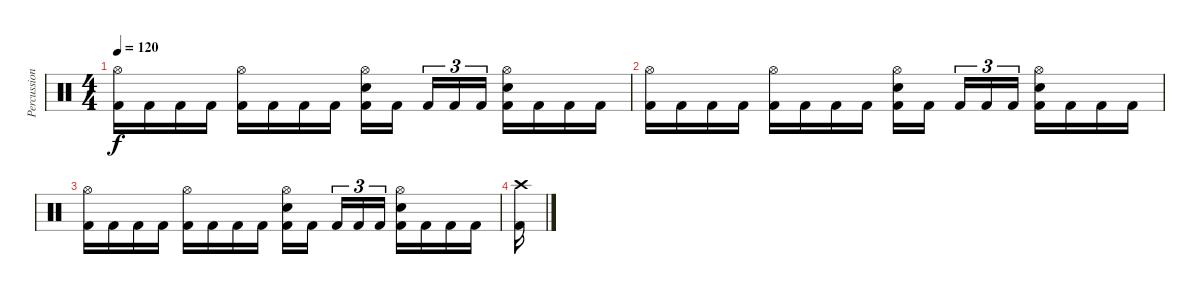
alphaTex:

\track ("Percussion" "Percussion") {instrument percussion}
\staff {score}
\articulation defaults
\ts (4 4)
\tempo 120
\clef neutral
\ks c
("Hi-Hat (open)" "Kick (hit) 2").16{dy f} "Kick (hit) 2".16 "Kick (hit) 2".16 "Kick (hit) 2".16 ("Hi-Hat (open)" "Kick (hit) 2").16 "Kick (hit) 2".16 "Kick (hit) 2".16 "Kick (hit) 2".16 ("Hi-Hat (open)" "Snare (hit) 2" "Kick (hit) 2").16 "Kick (hit) 2".16{beam splitsecondary} "Kick (hit) 2".16{tu (3 2)} "Kick (hit) 2".16{tu (3 2)} "Kick (hit) 2".16{tu (3 2)} ("Hi-Hat (open)" "Snare (hit) 2" "Kick (hit) 2").16 "Kick (hit) 2".16 "Kick (hit) 2".16 "Kick (hit) 2".16 |
("Hi-Hat (open)" "Kick (hit) 2").16 "Kick (hit) 2".16 "Kick (hit) 2".16 "Kick (hit) 2".16 ("Hi-Hat (open)" "Kick (hit) 2").16 "Kick (hit) 2".16 "Kick (hit) 2".16 "Kick (hit) 2".16 ("Hi-Hat (open)" "Snare (hit) 2" "Kick (hit) 2").16 "Kick (hit) 2".16{beam splitsecondary} "Kick (hit) 2".16{tu (3 2)} "Kick (hit) 2".16{tu (3 2)} "Kick (hit) 2".16{tu (3 2)} ("Hi-Hat (open)" "Snare (hit) 2" "Kick (hit) 2").16 "Kick (hit) 2".16 "Kick (hit) 2".16 "Kick (hit) 2".16 |
("Hi-Hat (open)" "Kick (hit) 2").16 "Kick (hit) 2".16 "Kick (hit) 2".16 "Kick (hit) 2".16 ("Hi-Hat (open)" "Kick (hit) 2").16 "Kick (hit) 2".16 "Kick (hit) 2".16 "Kick (hit) 2".16 ("Hi-Hat (open)" "Snare (hit) 2" "Kick (hit) 2").16 "Kick (hit) 2".16{beam splitsecondary} "Kick (hit) 2".16{tu (3 2)} "Kick (hit) 2".16{tu (3 2)} "Kick (hit) 2".16{tu (3 2)} ("Hi-Hat (open)" "Snare (hit) 2" "Kick (hit) 2").16 "Kick (hit) 2".16 "Kick (hit) 2".16 "Kick (hit) 2".16 |
("Crash high (hit)" "Kick (hit) 2").16
